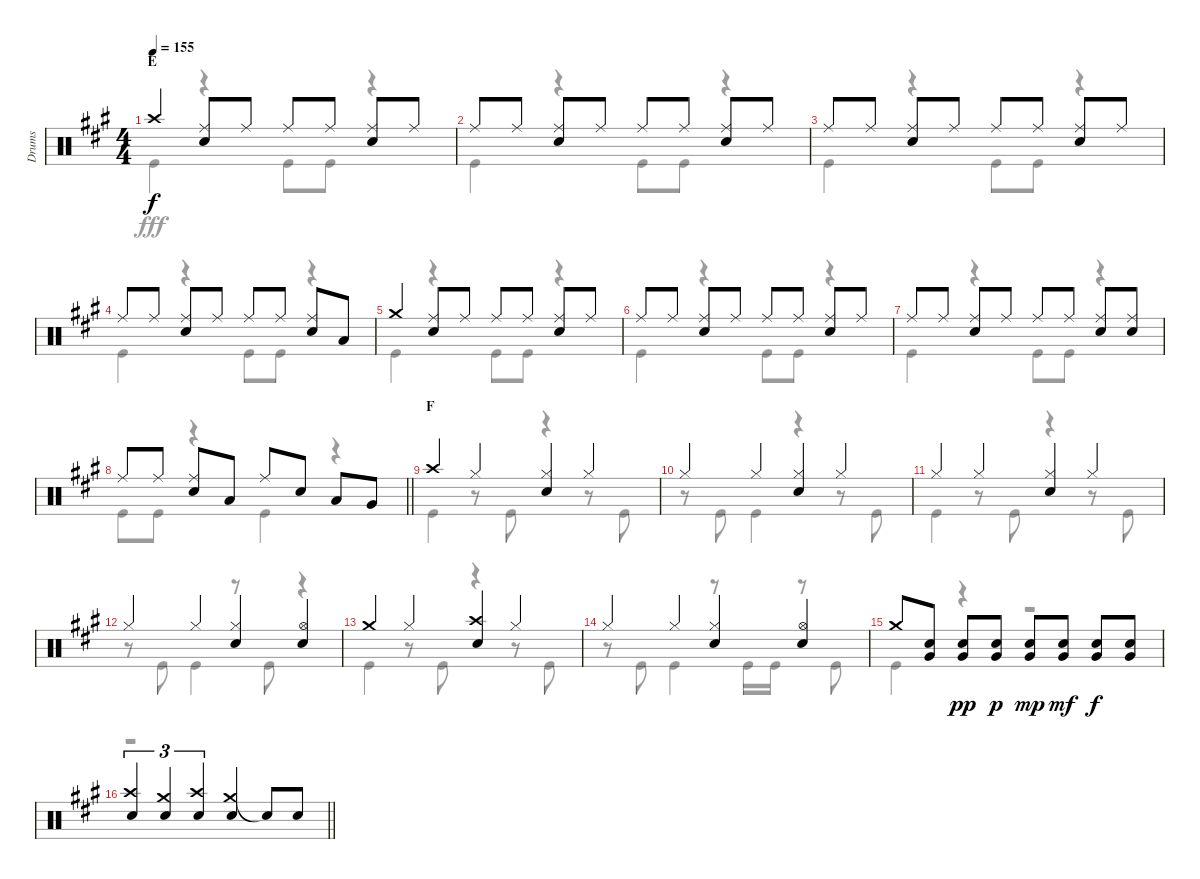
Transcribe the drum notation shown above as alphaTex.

\track ("Drums" "Drums") {instrument percussion}
\staff {score}
\articulation defaults
\voice
\ts (4 4)
\section ("" "E")
\tempo 155
\clef neutral
\ks a "Crash high (hit)".4{dy f}
("Ride (middle)" "Snare (hit) 2").8 "Ride (middle)".8 "Ride (middle)".8 "Ride (middle)".8 ("Ride (middle)" "Snare (hit) 2").8 "Ride (middle)".8 |
"Ride (middle)".8 "Ride (middle)".8 ("Ride (middle)" "Snare (hit) 2").8 "Ride (middle)".8 "Ride (middle)".8 "Ride (middle)".8 ("Ride (middle)" "Snare (hit) 2").8 "Ride (middle)".8 |
"Ride (middle)".8 "Ride (middle)".8 ("Ride (middle)" "Snare (hit) 2").8 "Ride (middle)".8 "Ride (middle)".8 "Ride (middle)".8 ("Ride (middle)" "Snare (hit) 2").8 "Ride (middle)".8 |
"Ride (middle)".8 "Ride (middle)".8 ("Ride (middle)" "Snare (hit) 2").8 "Ride (middle)".8 "Ride (middle)".8 "Ride (middle)".8 ("Ride (middle)" "Snare (hit) 2").8 "Low Tom (hit)".8 |
"Crash medium (hit)".4 ("Ride (middle)" "Snare (hit) 2").8 "Ride (middle)".8 "Ride (middle)".8 "Ride (middle)".8 ("Ride (middle)" "Snare (hit) 2").8 "Ride (middle)".8 |
"Ride (middle)".8 "Ride (middle)".8 ("Ride (middle)" "Snare (hit) 2").8 "Ride (middle)".8 "Ride (middle)".8 "Ride (middle)".8 ("Ride (middle)" "Snare (hit) 2").8 "Ride (middle)".8 |
"Ride (middle)".8 "Ride (middle)".8 ("Ride (middle)" "Snare (hit) 2").8 "Ride (middle)".8 "Ride (middle)".8 "Ride (middle)".8 ("Ride (middle)" "Snare (hit) 2").8 ("Ride (middle)" "Snare (hit) 2").8 |
\barLineRight lightlight "Ride (middle)".8 "Ride (middle)".8
("Ride (middle)" "Snare (hit) 2").8 "Low Tom (hit)".8 "Ride (middle)".8 "Snare (hit) 2".8 "Low Tom (hit)".8 "Very Low Tom (hit)".8 |
\section ("" "F")
"Crash high (hit)".4 "Hi-Hat (closed)".4 ("Hi-Hat (closed)" "Snare (hit) 2").4 "Hi-Hat (closed)".4 |
"Hi-Hat (closed)".4 "Hi-Hat (closed)".4 ("Hi-Hat (closed)" "Snare (hit) 2").4 "Hi-Hat (closed)".4 |
"Hi-Hat (closed)".4 "Hi-Hat (closed)".4 ("Hi-Hat (closed)" "Snare (hit) 2").4 "Hi-Hat (closed)".4 |
"Hi-Hat (closed)".4 "Hi-Hat (closed)".4 ("Hi-Hat (closed)" "Snare (hit) 2").4 ("Hi-Hat (open)" "Snare (hit) 2").4 |
"Crash medium (hit)".4 "Hi-Hat (closed)".4 ("Crash high (hit)" "Snare (hit) 2").4 "Hi-Hat (closed)".4 |
"Hi-Hat (closed)".4 "Hi-Hat (closed)".4 ("Hi-Hat (closed)" "Snare (hit) 2").4 ("Hi-Hat (open)" "Snare (hit) 2").4 |
"Crash medium (hit)".8 ("Snare (hit) 2" "Very Low Tom (hit)").8 ("Snare (hit) 2" "Very Low Tom (hit)").8{dy pp} ("Snare (hit) 2" "Very Low Tom (hit)").8{dy p} ("Snare (hit) 2" "Very Low Tom (hit)").8{dy mp} ("Snare (hit) 2" "Very Low Tom (hit)").8{dy mf} ("Snare (hit) 2" "Very Low Tom (hit)").8{dy f} ("Snare (hit) 2" "Very Low Tom (hit)").8 |
\barLineRight lightlight
("Crash high (hit)" "Snare (hit) 2").4{tu (3 2)} ("Crash medium (hit)" "Snare (hit) 2").4{tu (3 2)} ("Crash high (hit)" "Snare (hit) 2").4{tu (3 2)} ("Crash medium (hit)" "Snare (hit) 2").4 "Snare (hit)"{t}.8 "Snare (hit) 2".8
\voice
\clef neutral
\ottava regular
\simile none
\ks a "Kick (hit)".4{dy fff}
r.4 "Kick (hit)".8 "Kick (hit)".8 r.4 |
"Kick (hit)".4 r.4 "Kick (hit)".8 "Kick (hit)".8 r.4 |
"Kick (hit)".4 r.4 "Kick (hit)".8 "Kick (hit)".8 r.4 |
"Kick (hit)".4 r.4 "Kick (hit)".8 "Kick (hit)".8 r.4 |
"Kick (hit)".4 r.4 "Kick (hit)".8 "Kick (hit)".8 r.4 |
"Kick (hit)".4 r.4 "Kick (hit)".8 "Kick (hit)".8 r.4 |
"Kick (hit)".4 r.4 "Kick (hit)".8 "Kick (hit)".8 r.4 |
\barLineRight lightlight "Kick (hit)".8 "Kick (hit)".8
r.4 "Kick (hit)".4 r.4 |
"Kick (hit)".4 r.8 "Kick (hit)".8 r.4 r.8 "Kick (hit)".8 |
r.8 "Kick (hit)".8 "Kick (hit)".4 r.4 r.8 "Kick (hit)".8 |
"Kick (hit)".4 r.8 "Kick (hit)".8 r.4 r.8 "Kick (hit)".8 |
r.8 "Kick (hit)".8 "Kick (hit)".4 r.8 "Kick (hit)".8 r.4 |
"Kick (hit)".4 r.8 "Kick (hit)".8 r.4 r.8 "Kick (hit)".8 |
r.8 "Kick (hit)".8 "Kick (hit)".4 r.8 "Kick (hit)".16 "Kick (hit)".16 r.8 "Kick (hit)".8 |
"Kick (hit)".4 r.4 r.2 |
\barLineRight lightlight
r.1
